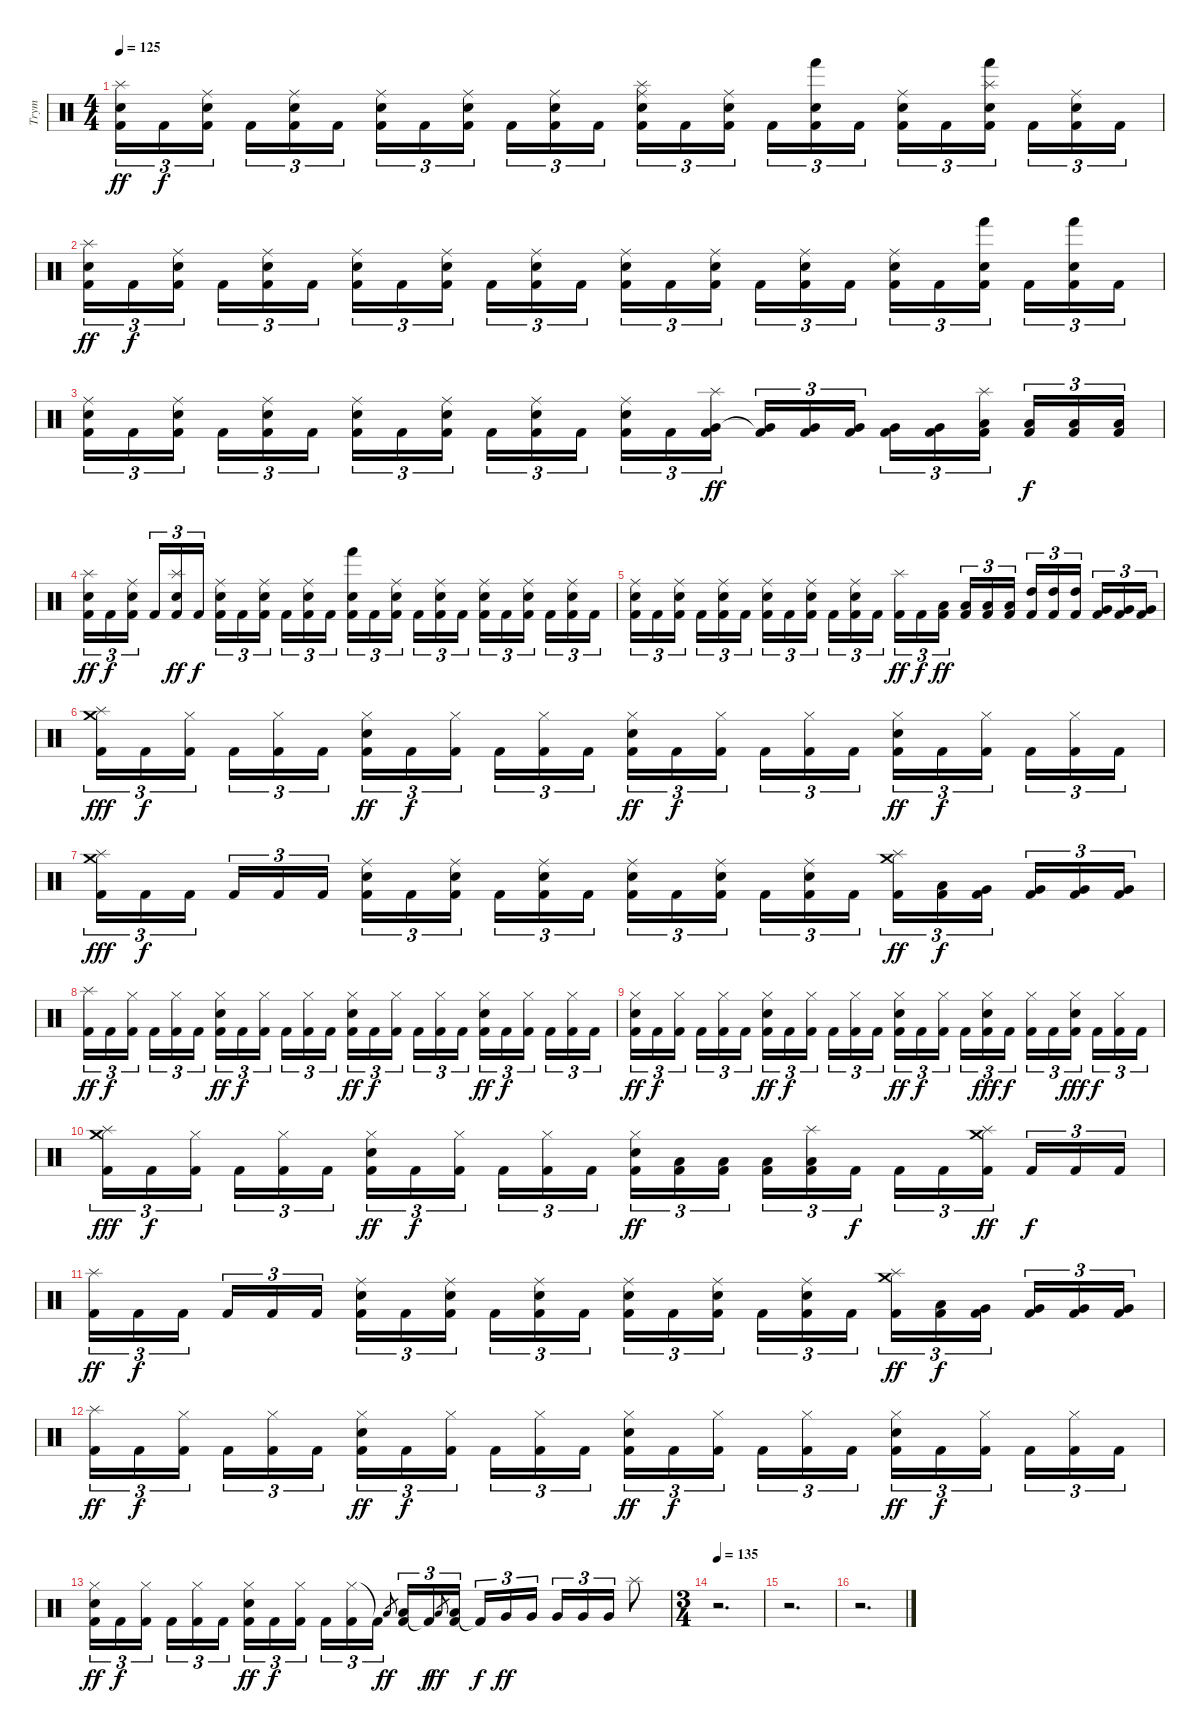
\track ("Trym" "Trym") {instrument percussion}
\staff {score}
\articulation defaults
\ts (4 4)
\tempo 125
\clef neutral
\ks c
("Snare (hit) 2" "Splash (hit)" "Kick (hit) 2").16{tu (3 2) dy ff} "Kick (hit) 2".16{tu (3 2) dy f} ("Snare (hit) 2" "Ride (middle)" "Kick (hit) 2").16{tu (3 2) beam splitsecondary} "Kick (hit) 2".16{tu (3 2)} ("Snare (hit) 2" "Ride (middle)" "Kick (hit) 2").16{tu (3 2)} "Kick (hit) 2".16{tu (3 2)} ("Snare (hit) 2" "Ride (middle)" "Kick (hit) 2").16{tu (3 2)} "Kick (hit) 2".16{tu (3 2)} ("Snare (hit) 2" "Ride (middle)" "Kick (hit) 2").16{tu (3 2) beam splitsecondary} "Kick (hit) 2".16{tu (3 2)} ("Snare (hit) 2" "Ride (middle)" "Kick (hit) 2").16{tu (3 2)} "Kick (hit) 2".16{tu (3 2)} ("Snare (hit) 2" "Splash (hit)" "Ride (middle)" "Kick (hit) 2").16{tu (3 2)} "Kick (hit) 2".16{tu (3 2)} ("Snare (hit) 2" "Ride (middle)" "Kick (hit) 2").16{tu (3 2) beam splitsecondary} "Kick (hit) 2".16{tu (3 2)} ("Snare (hit) 2" "Hand (hit)" "Kick (hit) 2").16{tu (3 2)} "Kick (hit) 2".16{tu (3 2)} ("Snare (hit) 2" "Ride (middle)" "Kick (hit) 2").16{tu (3 2)} "Kick (hit) 2".16{tu (3 2)} ("Snare (hit) 2" "Splash (hit)" "Hand (hit)" "Kick (hit) 2").16{tu (3 2) beam splitsecondary} "Kick (hit) 2".16{tu (3 2)} ("Snare (hit) 2" "Ride (middle)" "Kick (hit) 2").16{tu (3 2)} "Kick (hit) 2".16{tu (3 2)} |
("Snare (hit) 2" "Splash (hit)" "Kick (hit) 2").16{tu (3 2) dy ff} "Kick (hit) 2".16{tu (3 2) dy f} ("Snare (hit) 2" "Ride (middle)" "Kick (hit) 2").16{tu (3 2) beam splitsecondary} "Kick (hit) 2".16{tu (3 2)} ("Snare (hit) 2" "Ride (middle)" "Kick (hit) 2").16{tu (3 2)} "Kick (hit) 2".16{tu (3 2)} ("Snare (hit) 2" "Ride (middle)" "Kick (hit) 2").16{tu (3 2)} "Kick (hit) 2".16{tu (3 2)} ("Snare (hit) 2" "Ride (middle)" "Kick (hit) 2").16{tu (3 2) beam splitsecondary} "Kick (hit) 2".16{tu (3 2)} ("Snare (hit) 2" "Ride (middle)" "Kick (hit) 2").16{tu (3 2)} "Kick (hit) 2".16{tu (3 2)} ("Snare (hit) 2" "Ride (middle)" "Kick (hit) 2").16{tu (3 2)} "Kick (hit) 2".16{tu (3 2)} ("Snare (hit) 2" "Ride (middle)" "Kick (hit) 2").16{tu (3 2) beam splitsecondary} "Kick (hit) 2".16{tu (3 2)} ("Snare (hit) 2" "Ride (middle)" "Kick (hit) 2").16{tu (3 2)} "Kick (hit) 2".16{tu (3 2)} ("Snare (hit) 2" "Ride (middle)" "Kick (hit) 2").16{tu (3 2)} "Kick (hit) 2".16{tu (3 2)} ("Snare (hit) 2" "Hand (hit)" "Kick (hit) 2").16{tu (3 2) beam splitsecondary} "Kick (hit) 2".16{tu (3 2)} ("Snare (hit) 2" "Hand (hit)" "Kick (hit) 2").16{tu (3 2)} "Kick (hit) 2".16{tu (3 2)} |
("Snare (hit) 2" "Ride (middle)" "Kick (hit) 2").16{tu (3 2)} "Kick (hit) 2".16{tu (3 2)} ("Snare (hit) 2" "Ride (middle)" "Kick (hit) 2").16{tu (3 2) beam splitsecondary} "Kick (hit) 2".16{tu (3 2)} ("Snare (hit) 2" "Ride (middle)" "Kick (hit) 2").16{tu (3 2)} "Kick (hit) 2".16{tu (3 2)} ("Snare (hit) 2" "Ride (middle)" "Kick (hit) 2").16{tu (3 2)} "Kick (hit) 2".16{tu (3 2)} ("Snare (hit) 2" "Ride (middle)" "Kick (hit) 2").16{tu (3 2) beam splitsecondary} "Kick (hit) 2".16{tu (3 2)} ("Snare (hit) 2" "Ride (middle)" "Kick (hit) 2").16{tu (3 2)} "Kick (hit) 2".16{tu (3 2)} ("Snare (hit) 2" "Ride (middle)" "Kick (hit) 2").16{tu (3 2)} "Kick (hit) 2".16{tu (3 2)} ("Splash (hit)" "Very Low Tom (hit)" "Kick (hit) 2").16{tu (3 2) dy ff beam splitsecondary} ("Very Low Tom (hit)" "Kick (hit) 2"{t}).16{tu (3 2)} ("Very Low Tom (hit)" "Kick (hit) 2").16{tu (3 2)} ("Very Low Tom (hit)" "Kick (hit) 2").16{tu (3 2)} ("Very Low Tom (hit)" "Kick (hit) 2").16{tu (3 2)} ("Very Low Tom (hit)" "Kick (hit) 2").16{tu (3 2)} ("Splash (hit)" "Low Tom (hit)" "Kick (hit) 2").16{tu (3 2) beam splitsecondary} ("Low Tom (hit)" "Kick (hit) 2").16{tu (3 2) dy f} ("Low Tom (hit)" "Kick (hit) 2").16{tu (3 2)} ("Low Tom (hit)" "Kick (hit) 2").16{tu (3 2)} |
("Snare (hit) 2" "Splash (hit)" "Kick (hit) 2").16{tu (3 2) dy ff} "Kick (hit) 2".16{tu (3 2) dy f} ("Snare (hit) 2" "Ride (middle)" "Kick (hit) 2").16{tu (3 2) beam splitsecondary} "Kick (hit) 2".16{tu (3 2)} ("Snare (hit) 2" "Splash (hit)" "Kick (hit) 2").16{tu (3 2) dy ff} "Kick (hit) 2".16{tu (3 2) dy f} ("Snare (hit) 2" "Ride (middle)" "Kick (hit) 2").16{tu (3 2)} "Kick (hit) 2".16{tu (3 2)} ("Snare (hit) 2" "Ride (middle)" "Kick (hit) 2").16{tu (3 2) beam splitsecondary} "Kick (hit) 2".16{tu (3 2)} ("Snare (hit) 2" "Ride (middle)" "Kick (hit) 2").16{tu (3 2)} "Kick (hit) 2".16{tu (3 2)} ("Snare (hit) 2" "Hand (hit)" "Kick (hit) 2").16{tu (3 2)} "Kick (hit) 2".16{tu (3 2)} ("Snare (hit) 2" "Ride (middle)" "Kick (hit) 2").16{tu (3 2) beam splitsecondary} "Kick (hit) 2".16{tu (3 2)} ("Snare (hit) 2" "Ride (middle)" "Kick (hit) 2").16{tu (3 2)} "Kick (hit) 2".16{tu (3 2)} ("Snare (hit) 2" "Ride (middle)" "Kick (hit) 2").16{tu (3 2)} "Kick (hit) 2".16{tu (3 2)} ("Snare (hit) 2" "Ride (middle)" "Kick (hit) 2").16{tu (3 2) beam splitsecondary} "Kick (hit) 2".16{tu (3 2)} ("Snare (hit) 2" "Ride (middle)" "Kick (hit) 2").16{tu (3 2)} "Kick (hit) 2".16{tu (3 2)} |
("Snare (hit) 2" "Ride (middle)" "Kick (hit) 2").16{tu (3 2)} "Kick (hit) 2".16{tu (3 2)} ("Snare (hit) 2" "Ride (middle)" "Kick (hit) 2").16{tu (3 2) beam splitsecondary} "Kick (hit) 2".16{tu (3 2)} ("Snare (hit) 2" "Ride (middle)" "Kick (hit) 2").16{tu (3 2)} "Kick (hit) 2".16{tu (3 2)} ("Snare (hit) 2" "Ride (middle)" "Kick (hit) 2").16{tu (3 2)} "Kick (hit) 2".16{tu (3 2)} ("Snare (hit) 2" "Ride (middle)" "Kick (hit) 2").16{tu (3 2) beam splitsecondary} "Kick (hit) 2".16{tu (3 2)} ("Snare (hit) 2" "Ride (middle)" "Kick (hit) 2").16{tu (3 2)} "Kick (hit) 2".16{tu (3 2)} ("Splash (hit)" "Kick (hit) 2").16{tu (3 2) dy ff} "Kick (hit) 2".16{tu (3 2) dy f} ("Low Tom (hit)" "Kick (hit) 2").16{tu (3 2) dy ff beam splitsecondary} ("Low Tom (hit)" "Kick (hit) 2").16{tu (3 2)} ("Low Tom (hit)" "Kick (hit) 2").16{tu (3 2)} ("Low Tom (hit)" "Kick (hit) 2").16{tu (3 2)} ("High Tom (hit)" "Kick (hit) 2").16{tu (3 2)} ("High Tom (hit)" "Kick (hit) 2").16{tu (3 2)} ("High Tom (hit)" "Kick (hit) 2").16{tu (3 2) beam splitsecondary} ("Very Low Tom (hit)" "Kick (hit) 2").16{tu (3 2)} ("Very Low Tom (hit)" "Kick (hit) 2").16{tu (3 2)} ("Very Low Tom (hit)" "Kick (hit) 2").16{tu (3 2)} |
("Crash medium (hit)" "Splash (hit)" "Kick (hit) 2").16{tu (3 2) dy fff} "Kick (hit) 2".16{tu (3 2) dy f} ("Hi-Hat (closed)" "Kick (hit) 2").16{tu (3 2) beam splitsecondary} "Kick (hit) 2".16{tu (3 2)} ("Hi-Hat (closed)" "Kick (hit) 2").16{tu (3 2)} "Kick (hit) 2".16{tu (3 2)} ("Snare (hit) 2" "Hi-Hat (closed)" "Kick (hit) 2").16{tu (3 2) dy ff} "Kick (hit) 2".16{tu (3 2) dy f} ("Hi-Hat (closed)" "Kick (hit) 2").16{tu (3 2) beam splitsecondary} "Kick (hit) 2".16{tu (3 2)} ("Hi-Hat (closed)" "Kick (hit) 2").16{tu (3 2)} "Kick (hit) 2".16{tu (3 2)} ("Snare (hit) 2" "Hi-Hat (closed)" "Kick (hit) 2").16{tu (3 2) dy ff} "Kick (hit) 2".16{tu (3 2) dy f} ("Hi-Hat (closed)" "Kick (hit) 2").16{tu (3 2) beam splitsecondary} "Kick (hit) 2".16{tu (3 2)} ("Hi-Hat (closed)" "Kick (hit) 2").16{tu (3 2)} "Kick (hit) 2".16{tu (3 2)} ("Snare (hit) 2" "Hi-Hat (closed)" "Kick (hit) 2").16{tu (3 2) dy ff} "Kick (hit) 2".16{tu (3 2) dy f} ("Hi-Hat (closed)" "Kick (hit) 2").16{tu (3 2) beam splitsecondary} "Kick (hit) 2".16{tu (3 2)} ("Hi-Hat (closed)" "Kick (hit) 2").16{tu (3 2)} "Kick (hit) 2".16{tu (3 2)} |
("Crash medium (hit)" "Splash (hit)" "Kick (hit) 2").16{tu (3 2) dy fff} "Kick (hit) 2".16{tu (3 2) dy f} "Kick (hit) 2".16{tu (3 2) beam splitsecondary} "Kick (hit) 2".16{tu (3 2)} "Kick (hit) 2".16{tu (3 2)} "Kick (hit) 2".16{tu (3 2)} ("Snare (hit) 2" "Ride (middle)" "Kick (hit) 2").16{tu (3 2)} "Kick (hit) 2".16{tu (3 2)} ("Snare (hit) 2" "Ride (middle)" "Kick (hit) 2").16{tu (3 2) beam splitsecondary} "Kick (hit) 2".16{tu (3 2)} ("Snare (hit) 2" "Ride (middle)" "Kick (hit) 2").16{tu (3 2)} "Kick (hit) 2".16{tu (3 2)} ("Snare (hit) 2" "Ride (middle)" "Kick (hit) 2").16{tu (3 2)} "Kick (hit) 2".16{tu (3 2)} ("Snare (hit) 2" "Ride (middle)" "Kick (hit) 2").16{tu (3 2) beam splitsecondary} "Kick (hit) 2".16{tu (3 2)} ("Snare (hit) 2" "Ride (middle)" "Kick (hit) 2").16{tu (3 2)} "Kick (hit) 2".16{tu (3 2)} ("Crash medium (hit)" "Splash (hit)" "Kick (hit) 2").16{tu (3 2) dy ff} ("Low Tom (hit)" "Kick (hit) 2").16{tu (3 2) dy f} ("Very Low Tom (hit)" "Kick (hit) 2").16{tu (3 2) beam splitsecondary} ("Very Low Tom (hit)" "Kick (hit) 2").16{tu (3 2)} ("Very Low Tom (hit)" "Kick (hit) 2").16{tu (3 2)} ("Very Low Tom (hit)" "Kick (hit) 2").16{tu (3 2)} |
("Splash (hit)" "Kick (hit) 2").16{tu (3 2) dy ff} "Kick (hit) 2".16{tu (3 2) dy f} ("Hi-Hat (closed)" "Kick (hit) 2").16{tu (3 2) beam splitsecondary} "Kick (hit) 2".16{tu (3 2)} ("Hi-Hat (closed)" "Kick (hit) 2").16{tu (3 2)} "Kick (hit) 2".16{tu (3 2)} ("Snare (hit) 2" "Hi-Hat (closed)" "Kick (hit) 2").16{tu (3 2) dy ff} "Kick (hit) 2".16{tu (3 2) dy f} ("Hi-Hat (closed)" "Kick (hit) 2").16{tu (3 2) beam splitsecondary} "Kick (hit) 2".16{tu (3 2)} ("Hi-Hat (closed)" "Kick (hit) 2").16{tu (3 2)} "Kick (hit) 2".16{tu (3 2)} ("Snare (hit) 2" "Hi-Hat (closed)" "Kick (hit) 2").16{tu (3 2) dy ff} "Kick (hit) 2".16{tu (3 2) dy f} ("Hi-Hat (closed)" "Kick (hit) 2").16{tu (3 2) beam splitsecondary} "Kick (hit) 2".16{tu (3 2)} ("Hi-Hat (closed)" "Kick (hit) 2").16{tu (3 2)} "Kick (hit) 2".16{tu (3 2)} ("Snare (hit) 2" "Hi-Hat (closed)" "Kick (hit) 2").16{tu (3 2) dy ff} "Kick (hit) 2".16{tu (3 2) dy f} ("Hi-Hat (closed)" "Kick (hit) 2").16{tu (3 2) beam splitsecondary} "Kick (hit) 2".16{tu (3 2)} ("Hi-Hat (closed)" "Kick (hit) 2").16{tu (3 2)} "Kick (hit) 2".16{tu (3 2)} |
("Snare (hit) 2" "Hi-Hat (closed)" "Kick (hit) 2").16{tu (3 2) dy ff} "Kick (hit) 2".16{tu (3 2) dy f} ("Hi-Hat (closed)" "Kick (hit) 2").16{tu (3 2) beam splitsecondary} "Kick (hit) 2".16{tu (3 2)} ("Hi-Hat (closed)" "Kick (hit) 2").16{tu (3 2)} "Kick (hit) 2".16{tu (3 2)} ("Snare (hit) 2" "Hi-Hat (closed)" "Kick (hit) 2").16{tu (3 2) dy ff} "Kick (hit) 2".16{tu (3 2) dy f} ("Hi-Hat (closed)" "Kick (hit) 2").16{tu (3 2) beam splitsecondary} "Kick (hit) 2".16{tu (3 2)} ("Hi-Hat (closed)" "Kick (hit) 2").16{tu (3 2)} "Kick (hit) 2".16{tu (3 2)} ("Snare (hit) 2" "Hi-Hat (closed)" "Kick (hit) 2").16{tu (3 2) dy ff} "Kick (hit) 2".16{tu (3 2) dy f} ("Hi-Hat (closed)" "Kick (hit) 2").16{tu (3 2) beam splitsecondary} "Kick (hit) 2".16{tu (3 2)} ("Snare (hit) 2" "Hi-Hat (closed)" "Kick (hit) 2").16{tu (3 2) dy fff} "Kick (hit) 2".16{tu (3 2) dy f} ("Hi-Hat (closed)" "Kick (hit) 2").16{tu (3 2)} "Kick (hit) 2".16{tu (3 2)} ("Snare (hit) 2" "Hi-Hat (closed)" "Kick (hit) 2").16{tu (3 2) dy fff beam splitsecondary} "Kick (hit) 2".16{tu (3 2) dy f} ("Hi-Hat (closed)" "Kick (hit) 2").16{tu (3 2)} "Kick (hit) 2".16{tu (3 2)} |
("Crash medium (hit)" "Splash (hit)" "Kick (hit) 2").16{tu (3 2) dy fff} "Kick (hit) 2".16{tu (3 2) dy f} ("Hi-Hat (closed)" "Kick (hit) 2").16{tu (3 2) beam splitsecondary} "Kick (hit) 2".16{tu (3 2)} ("Hi-Hat (closed)" "Kick (hit) 2").16{tu (3 2)} "Kick (hit) 2".16{tu (3 2)} ("Snare (hit) 2" "Hi-Hat (closed)" "Kick (hit) 2").16{tu (3 2) dy ff} "Kick (hit) 2".16{tu (3 2) dy f} ("Hi-Hat (closed)" "Kick (hit) 2").16{tu (3 2) beam splitsecondary} "Kick (hit) 2".16{tu (3 2)} ("Hi-Hat (closed)" "Kick (hit) 2").16{tu (3 2)} "Kick (hit) 2".16{tu (3 2)} ("Snare (hit) 2" "Hi-Hat (closed)" "Kick (hit) 2").16{tu (3 2) dy ff} ("Low Tom (hit)" "Kick (hit) 2").16{tu (3 2)} ("Low Tom (hit)" "Kick (hit) 2").16{tu (3 2) beam splitsecondary} ("Low Tom (hit)" "Kick (hit) 2").16{tu (3 2)} ("Splash (hit)" "Low Tom (hit)" "Kick (hit) 2").16{tu (3 2)} "Kick (hit) 2".16{tu (3 2) dy f} "Kick (hit) 2".16{tu (3 2)} "Kick (hit) 2".16{tu (3 2)} ("Crash medium (hit)" "Splash (hit)" "Kick (hit) 2").16{tu (3 2) dy ff beam splitsecondary} "Kick (hit) 2".16{tu (3 2) dy f} "Kick (hit) 2".16{tu (3 2)} "Kick (hit) 2".16{tu (3 2)} |
("Splash (hit)" "Kick (hit) 2").16{tu (3 2) dy ff} "Kick (hit) 2".16{tu (3 2) dy f} "Kick (hit) 2".16{tu (3 2) beam splitsecondary} "Kick (hit) 2".16{tu (3 2)} "Kick (hit) 2".16{tu (3 2)} "Kick (hit) 2".16{tu (3 2)} ("Snare (hit) 2" "Ride (middle)" "Kick (hit) 2").16{tu (3 2)} "Kick (hit) 2".16{tu (3 2)} ("Snare (hit) 2" "Ride (middle)" "Kick (hit) 2").16{tu (3 2) beam splitsecondary} "Kick (hit) 2".16{tu (3 2)} ("Snare (hit) 2" "Ride (middle)" "Kick (hit) 2").16{tu (3 2)} "Kick (hit) 2".16{tu (3 2)} ("Snare (hit) 2" "Ride (middle)" "Kick (hit) 2").16{tu (3 2)} "Kick (hit) 2".16{tu (3 2)} ("Snare (hit) 2" "Ride (middle)" "Kick (hit) 2").16{tu (3 2) beam splitsecondary} "Kick (hit) 2".16{tu (3 2)} ("Snare (hit) 2" "Ride (middle)" "Kick (hit) 2").16{tu (3 2)} "Kick (hit) 2".16{tu (3 2)} ("Crash medium (hit)" "Splash (hit)" "Kick (hit) 2").16{tu (3 2) dy ff} ("Low Tom (hit)" "Kick (hit) 2").16{tu (3 2) dy f} ("Very Low Tom (hit)" "Kick (hit) 2").16{tu (3 2) beam splitsecondary} ("Very Low Tom (hit)" "Kick (hit) 2").16{tu (3 2)} ("Very Low Tom (hit)" "Kick (hit) 2").16{tu (3 2)} ("Very Low Tom (hit)" "Kick (hit) 2").16{tu (3 2)} |
("Splash (hit)" "Kick (hit) 2").16{tu (3 2) dy ff} "Kick (hit) 2".16{tu (3 2) dy f} ("Hi-Hat (closed)" "Kick (hit) 2").16{tu (3 2) beam splitsecondary} "Kick (hit) 2".16{tu (3 2)} ("Hi-Hat (closed)" "Kick (hit) 2").16{tu (3 2)} "Kick (hit) 2".16{tu (3 2)} ("Snare (hit) 2" "Hi-Hat (closed)" "Kick (hit) 2").16{tu (3 2) dy ff} "Kick (hit) 2".16{tu (3 2) dy f} ("Hi-Hat (closed)" "Kick (hit) 2").16{tu (3 2) beam splitsecondary} "Kick (hit) 2".16{tu (3 2)} ("Hi-Hat (closed)" "Kick (hit) 2").16{tu (3 2)} "Kick (hit) 2".16{tu (3 2)} ("Snare (hit) 2" "Hi-Hat (closed)" "Kick (hit) 2").16{tu (3 2) dy ff} "Kick (hit) 2".16{tu (3 2) dy f} ("Hi-Hat (closed)" "Kick (hit) 2").16{tu (3 2) beam splitsecondary} "Kick (hit) 2".16{tu (3 2)} ("Hi-Hat (closed)" "Kick (hit) 2").16{tu (3 2)} "Kick (hit) 2".16{tu (3 2)} ("Snare (hit) 2" "Hi-Hat (closed)" "Kick (hit) 2").16{tu (3 2) dy ff} "Kick (hit) 2".16{tu (3 2) dy f} ("Hi-Hat (closed)" "Kick (hit) 2").16{tu (3 2) beam splitsecondary} "Kick (hit) 2".16{tu (3 2)} ("Hi-Hat (closed)" "Kick (hit) 2").16{tu (3 2)} "Kick (hit) 2".16{tu (3 2)} |
("Snare (hit) 2" "Hi-Hat (closed)" "Kick (hit) 2").16{tu (3 2) dy ff} "Kick (hit) 2".16{tu (3 2) dy f} ("Hi-Hat (closed)" "Kick (hit) 2").16{tu (3 2) beam splitsecondary} "Kick (hit) 2".16{tu (3 2)} ("Hi-Hat (closed)" "Kick (hit) 2").16{tu (3 2)} "Kick (hit) 2".16{tu (3 2)} ("Snare (hit) 2" "Hi-Hat (closed)" "Kick (hit) 2").16{tu (3 2) dy ff} "Kick (hit) 2".16{tu (3 2) dy f} ("Hi-Hat (closed)" "Kick (hit) 2").16{tu (3 2) beam splitsecondary} "Kick (hit) 2".16{tu (3 2)} ("Hi-Hat (closed)" "Kick (hit) 2").16{tu (3 2)} "Kick (hit) 2"{t}.16{tu (3 2)} "Low Tom (hit)".8{gr dy ff} ("Low Tom (hit)" "Kick (hit) 2").16{tu (3 2)} "Kick (hit) 2"{t}.16{tu (3 2) dy f} "Low Tom (hit)".8{gr dy ff} ("Low Tom (hit)" "Kick (hit) 2").16{tu (3 2) beam splitsecondary} "Kick (hit) 2"{t}.16{tu (3 2) dy f} "Very Low Tom (hit)".16{tu (3 2) dy ff} "Very Low Tom (hit)".16{tu (3 2)} "Very Low Tom (hit)".16{tu (3 2)} "Very Low Tom (hit)".16{tu (3 2)} "Very Low Tom (hit)".16{tu (3 2)} "Splash (hit)".8 |
\ts (3 4)
\tempo 135
r.2{d} |
r.2{d} |
r.2{d}
